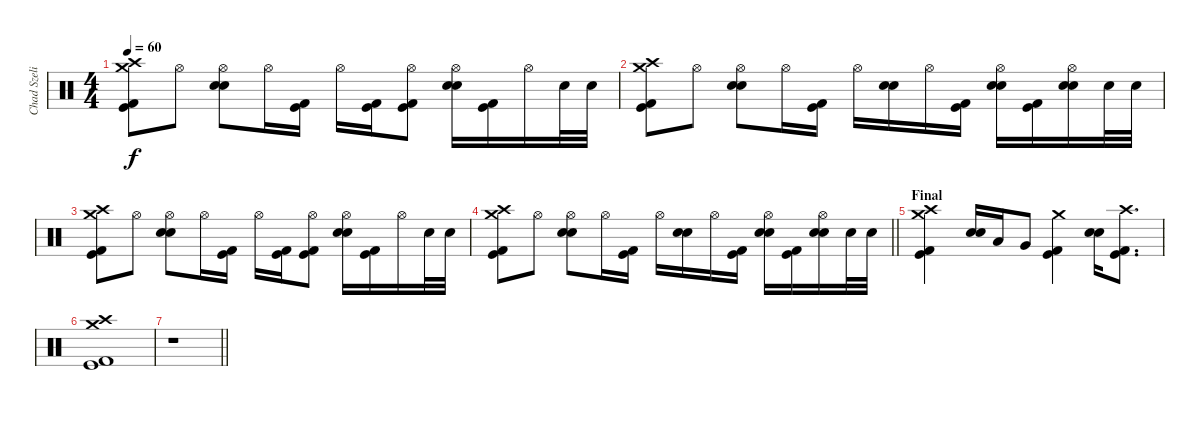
\track ("Chad Szeliga" "Chad Szeli") {instrument percussion}
\staff {score}
\articulation defaults
\ts (4 4)
\tempo 60
\clef neutral
\ks c
("Crash high (hit)" "Kick (hit) 2" "Kick (hit)" "Crash medium (hit)").8{dy f} "Hi-Hat (open)".8 ("Snare (hit) 2" "Snare (hit) 2" "Hi-Hat (open)").8 "Hi-Hat (open)".16 ("Kick (hit) 2" "Kick (hit)").16 "Hi-Hat (open)".16 ("Kick (hit) 2" "Kick (hit)").16 ("Kick (hit) 2" "Kick (hit)" "Hi-Hat (open)").8 ("Snare (hit) 2" "Snare (hit) 2" "Hi-Hat (open)").16 ("Kick (hit) 2" "Kick (hit)").16 "Hi-Hat (open)".16 "Snare (hit) 2".32 "Snare (hit) 2".32 |
("Crash high (hit)" "Kick (hit) 2" "Kick (hit)" "Crash medium (hit)").8 "Hi-Hat (open)".8 ("Snare (hit) 2" "Snare (hit) 2" "Hi-Hat (open)").8 "Hi-Hat (open)".16 ("Kick (hit) 2" "Kick (hit)").16 "Hi-Hat (open)".16 ("Snare (hit) 2" "Snare (hit) 2").16 "Hi-Hat (open)".16 ("Kick (hit) 2" "Kick (hit)").16 ("Snare (hit) 2" "Snare (hit) 2" "Hi-Hat (open)").16 ("Kick (hit) 2" "Kick (hit)").16 ("Snare (hit) 2" "Snare (hit) 2" "Hi-Hat (open)").16 "Snare (hit) 2".32 "Snare (hit) 2".32 |
("Crash high (hit)" "Kick (hit) 2" "Kick (hit)" "Crash medium (hit)").8 "Hi-Hat (open)".8 ("Snare (hit) 2" "Snare (hit) 2" "Hi-Hat (open)").8 "Hi-Hat (open)".16 ("Kick (hit) 2" "Kick (hit)").16 "Hi-Hat (open)".16 ("Kick (hit) 2" "Kick (hit)").16 ("Kick (hit) 2" "Kick (hit)" "Hi-Hat (open)").8 ("Snare (hit) 2" "Snare (hit) 2" "Hi-Hat (open)").16 ("Kick (hit) 2" "Kick (hit)").16 "Hi-Hat (open)".16 "Snare (hit) 2".32 "Snare (hit) 2".32 |
\barLineRight lightlight
("Crash high (hit)" "Kick (hit) 2" "Kick (hit)" "Crash medium (hit)").8 "Hi-Hat (open)".8 ("Snare (hit) 2" "Snare (hit) 2" "Hi-Hat (open)").8 "Hi-Hat (open)".16 ("Kick (hit) 2" "Kick (hit)").16 "Hi-Hat (open)".16 ("Snare (hit) 2" "Snare (hit) 2").16 "Hi-Hat (open)".16 ("Kick (hit) 2" "Kick (hit)").16 ("Snare (hit) 2" "Snare (hit) 2" "Hi-Hat (open)").16 ("Kick (hit) 2" "Kick (hit)").16 ("Snare (hit) 2" "Snare (hit) 2" "Hi-Hat (open)").16 "Snare (hit) 2".32 "Snare (hit) 2".32 |
\section ("" "Final")
("Crash high (hit)" "Kick (hit) 2" "Kick (hit)" "Crash medium (hit)").4 ("Snare (hit) 2" "Snare (hit) 2").16 "Low Tom (hit)".16 "Very Low Tom (hit)".8 ("Crash medium (hit)" "Kick (hit) 2" "Kick (hit)").4 ("Snare (hit) 2" "Snare (hit) 2").16 ("Crash high (hit)" "Kick (hit) 2" "Kick (hit)").8{d} |
("Crash high (hit)" "Kick (hit) 2" "Kick (hit)" "Crash medium (hit)").1 |
\barLineRight lightlight
r.1
